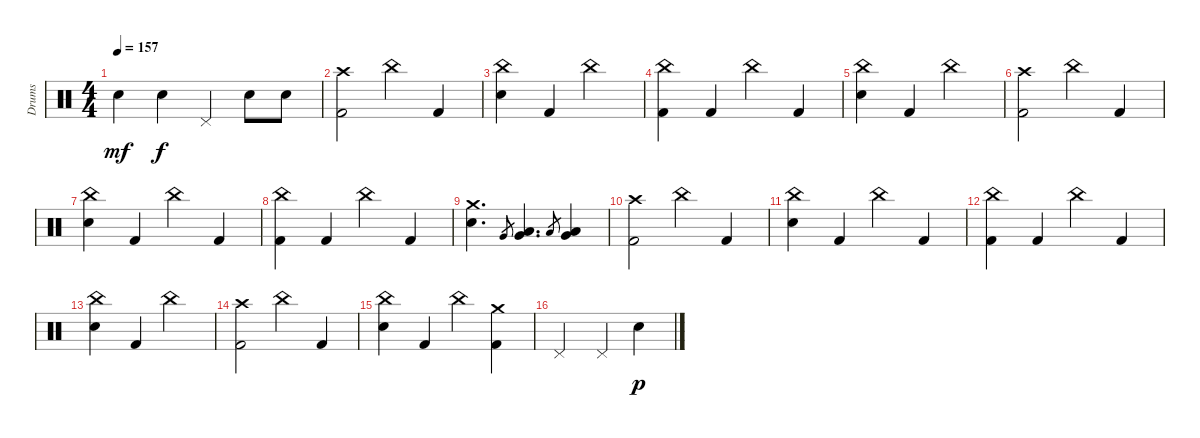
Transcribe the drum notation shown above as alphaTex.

\track ("Drums" "Drums") {instrument percussion}
\staff {score}
\articulation defaults
\ts (4 4)
\tempo 157
\clef neutral
\ks c "Electric Snare (hit)".4{dy mf} "Electric Snare (hit)".4{dy f} "Pedal Hi-Hat (hit)".4 "Electric Snare (hit)".8 "Electric Snare (hit)".8
|
("Crash high (hit)" "Kick (hit) 2").2 "China (hit)".4 "Kick (hit) 2".4 |
("China (hit)" "Electric Snare (hit)").4 "Kick (hit) 2".4 "China (hit)".2 |
("China (hit)" "Kick (hit) 2").4 "Kick (hit) 2".4 "China (hit)".4 "Kick (hit) 2".4 |
("China (hit)" "Electric Snare (hit)").4 "Kick (hit) 2".4 "China (hit)".2 |
("Crash high (hit)" "Kick (hit) 2").2 "China (hit)".4 "Kick (hit) 2".4 |
("China (hit)" "Electric Snare (hit)").4 "Kick (hit) 2".4 "China (hit)".4 "Kick (hit) 2".4 |
("China (hit)" "Kick (hit) 2").4 "Kick (hit) 2".4 "China (hit)".4 "Kick (hit) 2".4 |
("Crash medium (hit)" "Electric Snare (hit)").4{d} "Very Low Tom (hit)".8{gr} ("Low Tom (hit)" "Very Low Tom (hit)").4{d} "Low Floor Tom (hit)".8{gr} ("Very Low Tom (hit)" "Low Floor Tom (hit)").4 |
("Crash high (hit)" "Kick (hit) 2").2 "China (hit)".4 "Kick (hit) 2".4 |
("China (hit)" "Electric Snare (hit)").4 "Kick (hit) 2".4 "China (hit)".4 "Kick (hit) 2".4 |
("China (hit)" "Kick (hit) 2").4 "Kick (hit) 2".4 "China (hit)".4 "Kick (hit) 2".4 |
("China (hit)" "Electric Snare (hit)").4 "Kick (hit) 2".4 "China (hit)".2 |
("Crash high (hit)" "Kick (hit) 2").2 "China (hit)".4 "Kick (hit) 2".4 |
("China (hit)" "Electric Snare (hit)").4 "Kick (hit) 2".4 "China (hit)".4 ("Crash medium (hit)" "Kick (hit) 2").4 |
"Pedal Hi-Hat (hit)".2 "Pedal Hi-Hat (hit)".4 "Electric Snare (hit)".4{dy p}
